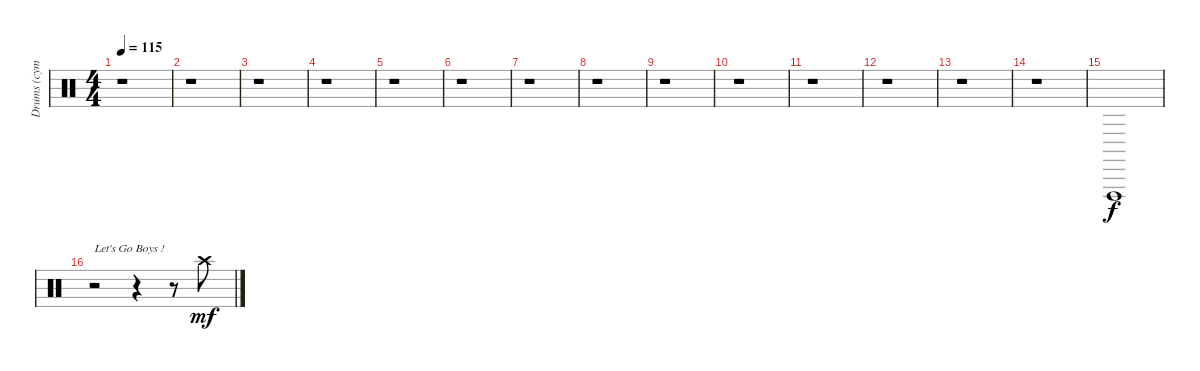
\track ("Drums (cymbals)" "Drums (cym") {instrument percussion}
\staff {score}
\articulation defaults
\ts (4 4)
\tempo 115
\clef neutral
\ks c
r.1{dy f} |
r.1 |
r.1 |
r.1 |
r.1 |
r.1 |
r.1 |
r.1 |
r.1 |
r.1 |
r.1 |
r.1 |
r.1 |
r.1 |
"Vibraslap (hit)".1 |
r.2{txt "Let's Go Boys !"} r.4 r.8 "Crash high (hit)".8{dy mf}
